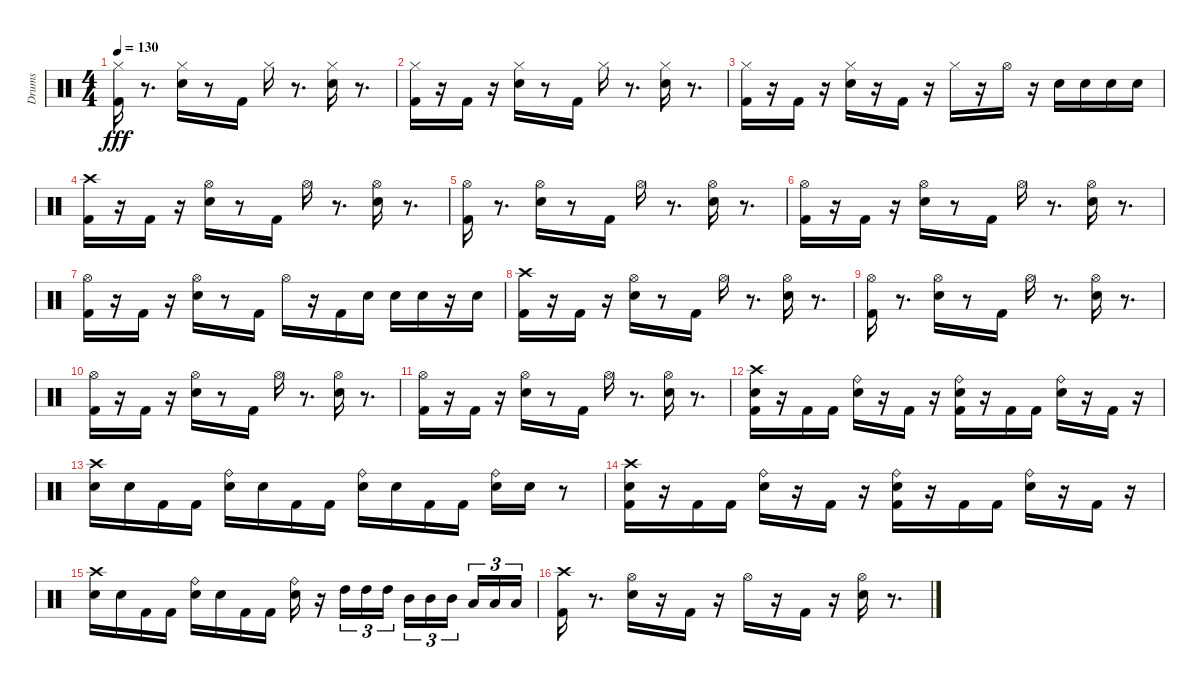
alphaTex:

\track ("Drums" "Drums") {instrument percussion}
\staff {score}
\articulation defaults
\ts (4 4)
\tempo 130
\clef neutral
\ks c
("Hi-Hat (closed)" "Kick (hit) 2").16{dy fff} r.8{d} ("Hi-Hat (closed)" "Electric Snare (hit)").16 r.8 "Kick (hit) 2".16 "Hi-Hat (closed)".16 r.8{d} ("Electric Snare (hit)" "Hi-Hat (closed)").16 r.8{d} |
("Kick (hit) 2" "Hi-Hat (closed)").16 r.16 "Kick (hit) 2".16 r.16 ("Electric Snare (hit)" "Hi-Hat (closed)").16 r.8 "Kick (hit) 2".16 "Hi-Hat (closed)".16 r.8{d} ("Hi-Hat (closed)" "Electric Snare (hit)").16 r.8{d} |
("Kick (hit) 2" "Hi-Hat (closed)").16 r.16 "Kick (hit) 2".16 r.16 ("Electric Snare (hit)" "Hi-Hat (closed)").16 r.16 "Kick (hit) 2".16 r.16 "Hi-Hat (closed)".16 r.16 "Hi-Hat (open)".16 r.16 "Electric Snare (hit)".16 "Electric Snare (hit)".16 "Electric Snare (hit)".16 "Electric Snare (hit)".16 |
("Kick (hit) 2" "Crash high (hit)").16 r.16 "Kick (hit) 2".16 r.16 ("Electric Snare (hit)" "Hi-Hat (open)").16 r.8 "Kick (hit) 2".16 "Hi-Hat (open)".16 r.8{d} ("Electric Snare (hit)" "Hi-Hat (open)").16 r.8{d} |
("Kick (hit) 2" "Hi-Hat (open)").16 r.8{d} ("Hi-Hat (open)" "Electric Snare (hit)").16 r.8 "Kick (hit) 2".16 "Hi-Hat (open)".16 r.8{d} ("Hi-Hat (open)" "Electric Snare (hit)").16 r.8{d} |
("Kick (hit) 2" "Hi-Hat (open)").16 r.16 "Kick (hit) 2".16 r.16 ("Hi-Hat (open)" "Electric Snare (hit)").16 r.8 "Kick (hit) 2".16 "Hi-Hat (open)".16 r.8{d} ("Hi-Hat (open)" "Electric Snare (hit)").16 r.8{d} |
("Kick (hit) 2" "Hi-Hat (open)").16 r.16 "Kick (hit) 2".16 r.16 ("Hi-Hat (open)" "Electric Snare (hit)").16 r.8 "Kick (hit) 2".16 "Hi-Hat (open)".16 r.16 "Kick (hit) 2".16 "Electric Snare (hit)".16 "Electric Snare (hit)".16 "Electric Snare (hit)".16 r.16 "Electric Snare (hit)".16 |
("Crash high (hit)" "Kick (hit) 2").16 r.16 "Kick (hit) 2".16 r.16 ("Hi-Hat (open)" "Electric Snare (hit)").16 r.8 "Kick (hit) 2".16 "Hi-Hat (open)".16 r.8{d} ("Hi-Hat (open)" "Electric Snare (hit)").16 r.8{d} |
("Hi-Hat (open)" "Kick (hit) 2").16 r.8{d} ("Electric Snare (hit)" "Hi-Hat (open)").16 r.8 "Kick (hit) 2".16 "Hi-Hat (open)".16 r.8{d} ("Electric Snare (hit)" "Hi-Hat (open)").16 r.8{d} |
("Hi-Hat (open)" "Kick (hit) 2").16 r.16 "Kick (hit) 2".16 r.16 ("Electric Snare (hit)" "Hi-Hat (open)").16 r.8 "Kick (hit) 2".16 "Hi-Hat (open)".16 r.8{d} ("Electric Snare (hit)" "Hi-Hat (open)").16 r.8{d} |
("Hi-Hat (open)" "Kick (hit) 2").16 r.16 "Kick (hit) 2".16 r.16 ("Electric Snare (hit)" "Hi-Hat (open)").16 r.8 "Kick (hit) 2".16 "Hi-Hat (open)".16 r.8{d} ("Hi-Hat (open)" "Electric Snare (hit)").16 r.8{d} |
("Crash high (hit)" "Electric Snare (hit)" "Kick (hit) 2").16 r.16 "Kick (hit) 2".16 "Kick (hit) 2".16 ("Ride (bell)" "Electric Snare (hit)").16 r.16 "Kick (hit) 2".16 r.16 ("Ride (bell)" "Electric Snare (hit)" "Kick (hit) 2").16 r.16 "Kick (hit) 2".16 "Kick (hit) 2".16 ("Ride (bell)" "Electric Snare (hit)").16 r.16 "Kick (hit) 2".16 r.16 |
("Crash high (hit)" "Electric Snare (hit)").16 "Electric Snare (hit)".16 "Kick (hit) 2".16 "Kick (hit) 2".16 ("Ride (bell)" "Electric Snare (hit)").16 "Electric Snare (hit)".16 "Kick (hit) 2".16 "Kick (hit) 2".16 ("Ride (bell)" "Electric Snare (hit)").16 "Electric Snare (hit)".16 "Kick (hit) 2".16 "Kick (hit) 2".16 ("Ride (bell)" "Electric Snare (hit)").16 "Electric Snare (hit)".16 r.8 |
("Crash high (hit)" "Electric Snare (hit)" "Kick (hit) 2").16 r.16 "Kick (hit) 2".16 "Kick (hit) 2".16 ("Ride (bell)" "Electric Snare (hit)").16 r.16 "Kick (hit) 2".16 r.16 ("Ride (bell)" "Electric Snare (hit)" "Kick (hit) 2").16 r.16 "Kick (hit) 2".16 "Kick (hit) 2".16 ("Ride (bell)" "Electric Snare (hit)").16 r.16 "Kick (hit) 2".16 r.16 |
("Crash high (hit)" "Electric Snare (hit)").16 "Electric Snare (hit)".16 "Kick (hit) 2".16 "Kick (hit) 2".16 ("Ride (bell)" "Electric Snare (hit)").16 "Electric Snare (hit)".16 "Kick (hit) 2".16 "Kick (hit) 2".16 ("Ride (bell)" "Electric Snare (hit)").16 r.16 "High Tom (hit)".16{tu (3 2)} "High Tom (hit)".16{tu (3 2)} "High Tom (hit)".16{tu (3 2)} "Mid Tom (hit)".16{tu (3 2)} "Mid Tom (hit)".16{tu (3 2)} "Mid Tom (hit)".16{tu (3 2)} "Low Tom (hit)".16{tu (3 2)} "Low Tom (hit)".16{tu (3 2)} "Low Tom (hit)".16{tu (3 2)} |
("Crash high (hit)" "Kick (hit) 2").16 r.8{d} ("Hi-Hat (open)" "Electric Snare (hit)").16 r.16 "Kick (hit) 2".16 r.16 "Hi-Hat (open)".16 r.16 "Kick (hit) 2".16 r.16 ("Hi-Hat (open)" "Electric Snare (hit)").16 r.8{d}
